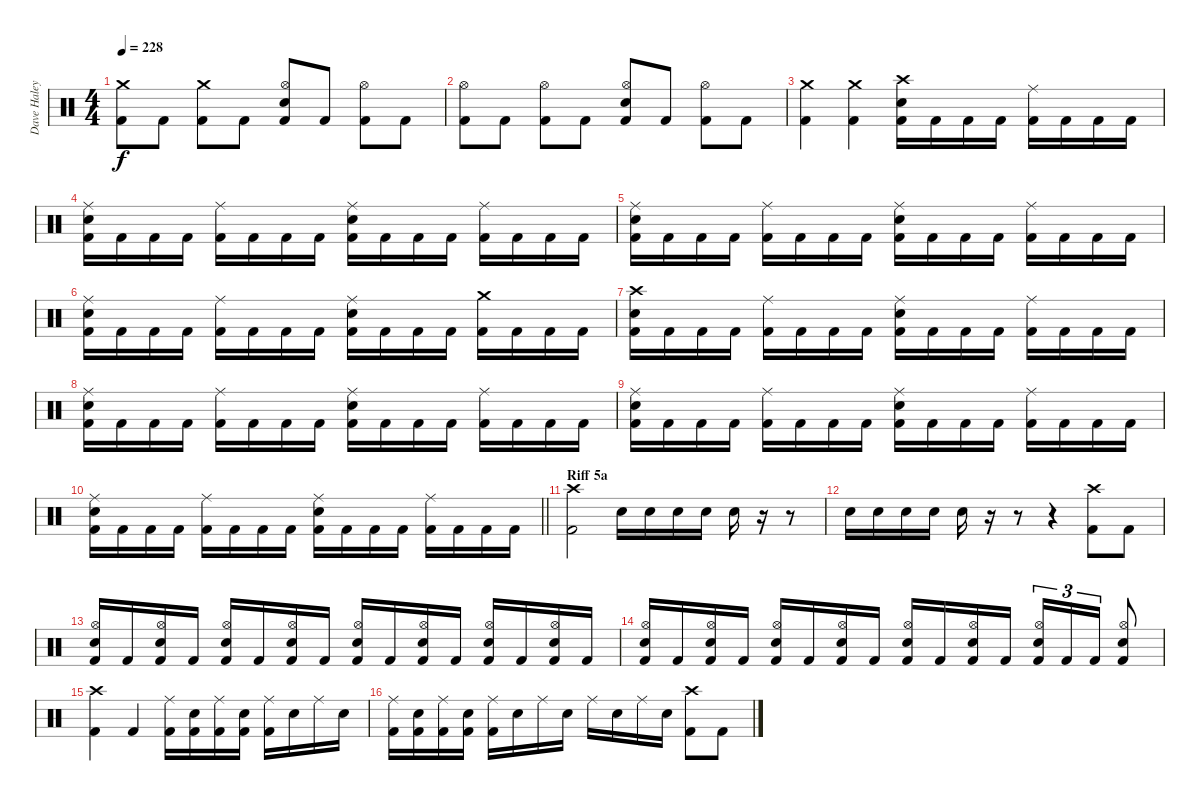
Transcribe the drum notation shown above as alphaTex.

\track ("Dave Haley" "Dave Haley") {instrument percussion}
\staff {score}
\articulation defaults
\ts (4 4)
\tempo 228
\clef neutral
\ks c
("Crash medium (hit)" "Kick (hit) 2").8{dy f} "Kick (hit) 2".8 ("Crash medium (hit)" "Kick (hit) 2").8 "Kick (hit) 2".8 ("Hi-Hat (open)" "Snare (hit) 2" "Kick (hit) 2").8 "Kick (hit) 2".8 ("Hi-Hat (open)" "Kick (hit) 2").8 "Kick (hit) 2".8 |
("Hi-Hat (open)" "Kick (hit) 2").8 "Kick (hit) 2".8 ("Hi-Hat (open)" "Kick (hit) 2").8 "Kick (hit) 2".8 ("Hi-Hat (open)" "Snare (hit) 2" "Kick (hit) 2").8 "Kick (hit) 2".8 ("Hi-Hat (open)" "Kick (hit) 2").8 "Kick (hit) 2".8 |
("Crash medium (hit)" "Kick (hit) 2").4 ("Crash medium (hit)" "Kick (hit) 2").4 ("Crash high (hit)" "Snare (hit) 2" "Kick (hit) 2").16 "Kick (hit) 2".16 "Kick (hit) 2".16 "Kick (hit) 2".16 ("Ride (middle)" "Kick (hit) 2").16 "Kick (hit) 2".16 "Kick (hit) 2".16 "Kick (hit) 2".16 |
("Ride (middle)" "Snare (hit) 2" "Kick (hit) 2").16 "Kick (hit) 2".16 "Kick (hit) 2".16 "Kick (hit) 2".16 ("Ride (middle)" "Kick (hit) 2").16 "Kick (hit) 2".16 "Kick (hit) 2".16 "Kick (hit) 2".16 ("Ride (middle)" "Snare (hit) 2" "Kick (hit) 2").16 "Kick (hit) 2".16 "Kick (hit) 2".16 "Kick (hit) 2".16 ("Ride (middle)" "Kick (hit) 2").16 "Kick (hit) 2".16 "Kick (hit) 2".16 "Kick (hit) 2".16 |
("Ride (middle)" "Snare (hit) 2" "Kick (hit) 2").16 "Kick (hit) 2".16 "Kick (hit) 2".16 "Kick (hit) 2".16 ("Ride (middle)" "Kick (hit) 2").16 "Kick (hit) 2".16 "Kick (hit) 2".16 "Kick (hit) 2".16 ("Ride (middle)" "Snare (hit) 2" "Kick (hit) 2").16 "Kick (hit) 2".16 "Kick (hit) 2".16 "Kick (hit) 2".16 ("Ride (middle)" "Kick (hit) 2").16 "Kick (hit) 2".16 "Kick (hit) 2".16 "Kick (hit) 2".16 |
("Ride (middle)" "Snare (hit) 2" "Kick (hit) 2").16 "Kick (hit) 2".16 "Kick (hit) 2".16 "Kick (hit) 2".16 ("Ride (middle)" "Kick (hit) 2").16 "Kick (hit) 2".16 "Kick (hit) 2".16 "Kick (hit) 2".16 ("Ride (middle)" "Snare (hit) 2" "Kick (hit) 2").16 "Kick (hit) 2".16 "Kick (hit) 2".16 "Kick (hit) 2".16 ("Crash medium (hit)" "Kick (hit) 2").16 "Kick (hit) 2".16 "Kick (hit) 2".16 "Kick (hit) 2".16 |
("Crash high (hit)" "Snare (hit) 2" "Kick (hit) 2").16 "Kick (hit) 2".16 "Kick (hit) 2".16 "Kick (hit) 2".16 ("Ride (middle)" "Kick (hit) 2").16 "Kick (hit) 2".16 "Kick (hit) 2".16 "Kick (hit) 2".16 ("Ride (middle)" "Snare (hit) 2" "Kick (hit) 2").16 "Kick (hit) 2".16 "Kick (hit) 2".16 "Kick (hit) 2".16 ("Ride (middle)" "Kick (hit) 2").16 "Kick (hit) 2".16 "Kick (hit) 2".16 "Kick (hit) 2".16 |
("Ride (middle)" "Snare (hit) 2" "Kick (hit) 2").16 "Kick (hit) 2".16 "Kick (hit) 2".16 "Kick (hit) 2".16 ("Ride (middle)" "Kick (hit) 2").16 "Kick (hit) 2".16 "Kick (hit) 2".16 "Kick (hit) 2".16 ("Ride (middle)" "Snare (hit) 2" "Kick (hit) 2").16 "Kick (hit) 2".16 "Kick (hit) 2".16 "Kick (hit) 2".16 ("Ride (middle)" "Kick (hit) 2").16 "Kick (hit) 2".16 "Kick (hit) 2".16 "Kick (hit) 2".16 |
("Ride (middle)" "Snare (hit) 2" "Kick (hit) 2").16 "Kick (hit) 2".16 "Kick (hit) 2".16 "Kick (hit) 2".16 ("Ride (middle)" "Kick (hit) 2").16 "Kick (hit) 2".16 "Kick (hit) 2".16 "Kick (hit) 2".16 ("Ride (middle)" "Snare (hit) 2" "Kick (hit) 2").16 "Kick (hit) 2".16 "Kick (hit) 2".16 "Kick (hit) 2".16 ("Ride (middle)" "Kick (hit) 2").16 "Kick (hit) 2".16 "Kick (hit) 2".16 "Kick (hit) 2".16 |
\barLineRight lightlight
("Ride (middle)" "Snare (hit) 2" "Kick (hit) 2").16 "Kick (hit) 2".16 "Kick (hit) 2".16 "Kick (hit) 2".16 ("Ride (middle)" "Kick (hit) 2").16 "Kick (hit) 2".16 "Kick (hit) 2".16 "Kick (hit) 2".16 ("Ride (middle)" "Snare (hit) 2" "Kick (hit) 2").16 "Kick (hit) 2".16 "Kick (hit) 2".16 "Kick (hit) 2".16 ("Ride (middle)" "Kick (hit) 2").16 "Kick (hit) 2".16 "Kick (hit) 2".16 "Kick (hit) 2".16 |
\section ("" "Riff 5a")
("Crash high (hit)" "Kick (hit) 2").2 "Snare (hit) 2".16 "Snare (hit) 2".16 "Snare (hit) 2".16 "Snare (hit) 2".16 "Snare (hit) 2".16 r.16 r.8 |
"Snare (hit) 2".16 "Snare (hit) 2".16 "Snare (hit) 2".16 "Snare (hit) 2".16 "Snare (hit) 2".16 r.16 r.8 r.4 ("Crash high (hit)" "Kick (hit) 2").8 "Kick (hit) 2".8 |
("Hi-Hat (open)" "Snare (hit) 2" "Kick (hit) 2").16 "Kick (hit) 2".16 ("Hi-Hat (open)" "Snare (hit) 2" "Kick (hit) 2").16 "Kick (hit) 2".16 ("Hi-Hat (open)" "Snare (hit) 2" "Kick (hit) 2").16 "Kick (hit) 2".16 ("Hi-Hat (open)" "Snare (hit) 2" "Kick (hit) 2").16 "Kick (hit) 2".16 ("Hi-Hat (open)" "Snare (hit) 2" "Kick (hit) 2").16 "Kick (hit) 2".16 ("Hi-Hat (open)" "Snare (hit) 2" "Kick (hit) 2").16 "Kick (hit) 2".16 ("Hi-Hat (open)" "Snare (hit) 2" "Kick (hit) 2").16 "Kick (hit) 2".16 ("Hi-Hat (open)" "Snare (hit) 2" "Kick (hit) 2").16 "Kick (hit) 2".16 |
("Hi-Hat (open)" "Snare (hit) 2" "Kick (hit) 2").16 "Kick (hit) 2".16 ("Hi-Hat (open)" "Snare (hit) 2" "Kick (hit) 2").16 "Kick (hit) 2".16 ("Hi-Hat (open)" "Snare (hit) 2" "Kick (hit) 2").16 "Kick (hit) 2".16 ("Hi-Hat (open)" "Snare (hit) 2" "Kick (hit) 2").16 "Kick (hit) 2".16 ("Hi-Hat (open)" "Snare (hit) 2" "Kick (hit) 2").16 "Kick (hit) 2".16 ("Hi-Hat (open)" "Snare (hit) 2" "Kick (hit) 2").16 "Kick (hit) 2".16 ("Hi-Hat (open)" "Snare (hit) 2" "Kick (hit) 2").16{tu (3 2)} "Kick (hit) 2".16{tu (3 2)} "Kick (hit) 2".16{tu (3 2)} ("Hi-Hat (open)" "Snare (hit) 2" "Kick (hit) 2").8 |
("Crash high (hit)" "Kick (hit) 2").4 "Kick (hit) 2".4 ("Ride (middle)" "Kick (hit) 2").16 ("Snare (hit) 2" "Kick (hit) 2").16 ("Ride (middle)" "Kick (hit) 2").16 ("Snare (hit) 2" "Kick (hit) 2").16 ("Ride (middle)" "Kick (hit) 2").16 "Snare (hit) 2".16 "Ride (middle)".16 "Snare (hit) 2".16 |
("Ride (middle)" "Kick (hit) 2").16 ("Snare (hit) 2" "Kick (hit) 2").16 ("Ride (middle)" "Kick (hit) 2").16 ("Snare (hit) 2" "Kick (hit) 2").16 ("Ride (middle)" "Kick (hit) 2").16 "Snare (hit) 2".16 "Ride (middle)".16 "Snare (hit) 2".16 "Ride (middle)".16 "Snare (hit) 2".16 "Ride (middle)".16 "Snare (hit) 2".16 ("Crash high (hit)" "Kick (hit) 2").8 "Kick (hit) 2".8
